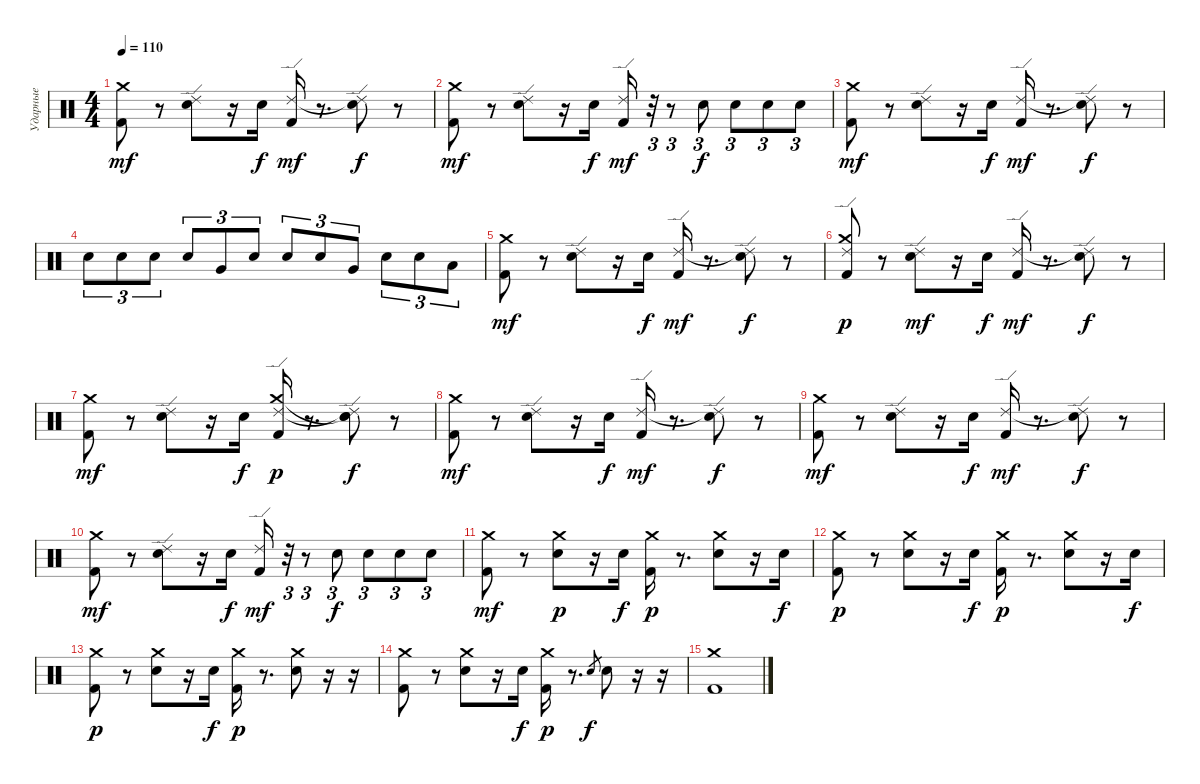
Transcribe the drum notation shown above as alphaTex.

\track ("Ударные" "Ударные") {instrument percussion}
\staff {score}
\articulation defaults
\ts (4 4)
\tempo 110
\clef neutral
\ks c
("Kick (hit) 2" "Crash medium (hit)").8{dy mf} r.8 ("Electric Snare (hit)" "Ride (edge) 2").8 r.16 "Electric Snare (hit)".16{dy f} ("Kick (hit) 2" "Ride (edge) 2").16{dy mf} r.8{d} ("Electric Snare (hit)" "Ride (edge) 2"{t}).8{dy f} r.8 |
("Kick (hit) 2" "Crash medium (hit)").8{dy mf} r.8 ("Electric Snare (hit)" "Ride (edge) 2").8 r.16 "Electric Snare (hit)".16{dy f} ("Kick (hit) 2" "Ride (edge) 2").16{dy mf} r.32{tu (3 2)} r.8{tu (3 2)} "Electric Snare (hit)".8{tu (3 2) dy f} "Electric Snare (hit)".8{tu (3 2)} "Electric Snare (hit)".8{tu (3 2)} "Electric Snare (hit)".8{tu (3 2)} |
("Kick (hit) 2" "Crash medium (hit)").8{dy mf} r.8 ("Electric Snare (hit)" "Ride (edge) 2").8 r.16 "Electric Snare (hit)".16{dy f} ("Kick (hit) 2" "Ride (edge) 2").16{dy mf} r.8{d} ("Electric Snare (hit)" "Ride (edge) 2"{t}).8{dy f} r.8 |
"Electric Snare (hit)".8{tu (3 2)} "Electric Snare (hit)".8{tu (3 2)} "Electric Snare (hit)".8{tu (3 2)} "Electric Snare (hit)".8{tu (3 2)} "Very Low Tom (hit)".8{tu (3 2)} "Electric Snare (hit)".8{tu (3 2)} "Electric Snare (hit)".8{tu (3 2)} "Electric Snare (hit)".8{tu (3 2)} "Very Low Tom (hit)".8{tu (3 2)} "Electric Snare (hit)".8{tu (3 2)} "Electric Snare (hit)".8{tu (3 2)} "Low Floor Tom (hit)".8{tu (3 2)} |
("Kick (hit) 2" "Crash medium (hit)").8{dy mf} r.8 ("Electric Snare (hit)" "Ride (edge) 2").8 r.16 "Electric Snare (hit)".16{dy f} ("Kick (hit) 2" "Ride (edge) 2").16{dy mf} r.8{d} ("Electric Snare (hit)" "Ride (edge) 2"{t}).8{dy f} r.8 |
("Kick (hit) 2" "Ride (edge) 2" "Crash medium (hit)").8{dy p} r.8 ("Electric Snare (hit)" "Ride (edge) 2").8{dy mf} r.16 "Electric Snare (hit)".16{dy f} ("Kick (hit) 2" "Ride (edge) 2").16{dy mf} r.8{d} ("Electric Snare (hit)" "Ride (edge) 2"{t}).8{dy f} r.8 |
("Kick (hit) 2" "Crash medium (hit)").8{dy mf} r.8 ("Electric Snare (hit)" "Ride (edge) 2").8 r.16 "Electric Snare (hit)".16{dy f} ("Kick (hit) 2" "Ride (edge) 2" "Crash medium (hit)").16{dy p} r.8{d} ("Electric Snare (hit)" "Ride (edge) 2"{t} "Snare (hit)"{t}).8{dy f} r.8 |
("Kick (hit) 2" "Crash medium (hit)").8{dy mf} r.8 ("Electric Snare (hit)" "Ride (edge) 2").8 r.16 "Electric Snare (hit)".16{dy f} ("Kick (hit) 2" "Ride (edge) 2").16{dy mf} r.8{d} ("Electric Snare (hit)" "Ride (edge) 2"{t}).8{dy f} r.8 |
("Kick (hit) 2" "Crash medium (hit)").8{dy mf} r.8 ("Electric Snare (hit)" "Ride (edge) 2").8 r.16 "Electric Snare (hit)".16{dy f} ("Kick (hit) 2" "Ride (edge) 2").16{dy mf} r.8{d} ("Electric Snare (hit)" "Ride (edge) 2"{t}).8{dy f} r.8 |
("Kick (hit) 2" "Crash medium (hit)").8{dy mf} r.8 ("Electric Snare (hit)" "Ride (edge) 2").8 r.16 "Electric Snare (hit)".16{dy f} ("Kick (hit) 2" "Ride (edge) 2").16{dy mf} r.32{tu (3 2)} r.8{tu (3 2)} "Electric Snare (hit)".8{tu (3 2) dy f} "Electric Snare (hit)".8{tu (3 2)} "Electric Snare (hit)".8{tu (3 2)} "Electric Snare (hit)".8{tu (3 2)} |
("Kick (hit) 2" "Crash medium (hit)").8{dy mf} r.8 ("Electric Snare (hit)" "Crash medium (hit)").8{dy p} r.16 "Electric Snare (hit)".16{dy f} ("Kick (hit) 2" "Crash medium (hit)").16{dy p} r.8{d} ("Electric Snare (hit)" "Crash medium (hit)").8 r.16 "Electric Snare (hit)".16{dy f} |
("Kick (hit) 2" "Crash medium (hit)").8{dy p} r.8 ("Electric Snare (hit)" "Crash medium (hit)").8 r.16 "Electric Snare (hit)".16{dy f} ("Kick (hit) 2" "Crash medium (hit)").16{dy p} r.8{d} ("Electric Snare (hit)" "Crash medium (hit)").8 r.16 "Electric Snare (hit)".16{dy f} |
("Kick (hit) 2" "Crash medium (hit)").8{dy p} r.8 ("Electric Snare (hit)" "Crash medium (hit)").8 r.16 "Electric Snare (hit)".16{dy f} ("Kick (hit) 2" "Crash medium (hit)").16{dy p} r.8{d} ("Electric Snare (hit)" "Crash medium (hit)").8 r.16 r.16 |
("Kick (hit) 2" "Crash medium (hit)").8 r.8 ("Electric Snare (hit)" "Crash medium (hit)").8 r.16 "Electric Snare (hit)".16{dy f} ("Kick (hit) 2" "Crash medium (hit)").16{dy p} r.8{d} "Electric Snare (hit)".8{gr dy f} "Electric Snare (hit)".8 r.16 r.16 |
("Crash medium (hit)" "Kick (hit) 2").1
